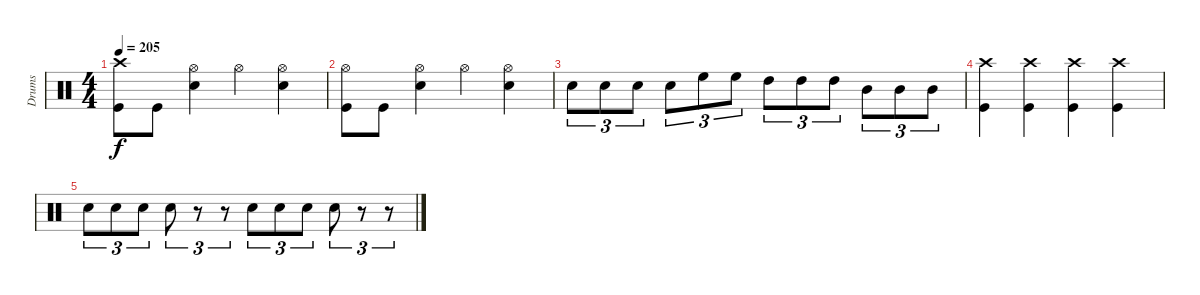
\track ("Drums" "Drums") {instrument percussion}
\staff {score}
\articulation defaults
\ts (4 4)
\tempo 205
\clef neutral
\ks c
("Crash high (hit)" "Kick (hit)").8{dy f} "Kick (hit)".8 ("Hi-Hat (open)" "Snare (hit) 2").4 "Hi-Hat (open)".4 ("Hi-Hat (open)" "Snare (hit) 2").4 |
("Hi-Hat (open)" "Kick (hit)").8 "Kick (hit)".8 ("Hi-Hat (open)" "Snare (hit) 2").4 "Hi-Hat (open)".4 ("Hi-Hat (open)" "Snare (hit) 2").4 |
"Snare (hit) 2".8{tu (3 2)} "Snare (hit) 2".8{tu (3 2)} "Snare (hit) 2".8{tu (3 2)} "Snare (hit) 2".8{tu (3 2)} "High Floor Tom (hit)".8{tu (3 2)} "High Floor Tom (hit)".8{tu (3 2)} "High Tom (hit)".8{tu (3 2)} "High Tom (hit)".8{tu (3 2)} "High Tom (hit)".8{tu (3 2)} "Mid Tom (hit)".8{tu (3 2)} "Mid Tom (hit)".8{tu (3 2)} "Mid Tom (hit)".8{tu (3 2)} |
("Crash high (hit)" "Kick (hit)").4 ("Crash high (hit)" "Kick (hit)").4 ("Crash high (hit)" "Kick (hit)").4 ("Crash high (hit)" "Kick (hit)").4 |
"Snare (hit) 2".8{tu (3 2)} "Snare (hit) 2".8{tu (3 2)} "Snare (hit) 2".8{tu (3 2)} "Snare (hit) 2".8{tu (3 2)} r.8{tu (3 2)} r.8{tu (3 2)} "Snare (hit) 2".8{tu (3 2)} "Snare (hit) 2".8{tu (3 2)} "Snare (hit) 2".8{tu (3 2)} "Snare (hit) 2".8{tu (3 2)} r.8{tu (3 2)} r.8{tu (3 2)}
